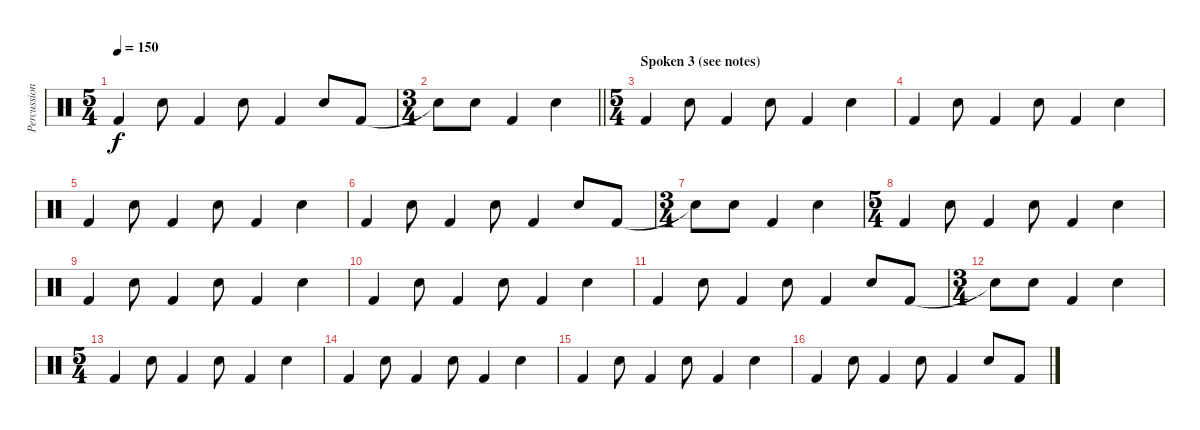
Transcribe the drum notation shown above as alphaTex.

\track ("Percussion" "Percussion") {instrument percussion}
\staff {score}
\articulation defaults
\ts (5 4)
\tempo 150
\clef neutral
\ks c "Kick (hit) 2".4{dy f} "Snare (hit) 2".8 "Kick (hit) 2".4 "Snare (hit) 2".8 "Kick (hit) 2".4 "Snare (hit) 2".8 "Kick (hit) 2".8
|
\ts (3 4)
\barLineRight lightlight "Snare (hit)"{t}.8 "Snare (hit) 2".8 "Kick (hit) 2".4 "Snare (hit) 2".4
|
\ts (5 4)
\section ("" "Spoken 3 (see notes)")
"Kick (hit) 2".4 "Snare (hit) 2".8 "Kick (hit) 2".4 "Snare (hit) 2".8 "Kick (hit) 2".4 "Snare (hit) 2".4 |
"Kick (hit) 2".4 "Snare (hit) 2".8 "Kick (hit) 2".4 "Snare (hit) 2".8 "Kick (hit) 2".4 "Snare (hit) 2".4 |
"Kick (hit) 2".4 "Snare (hit) 2".8 "Kick (hit) 2".4 "Snare (hit) 2".8 "Kick (hit) 2".4 "Snare (hit) 2".4 |
"Kick (hit) 2".4 "Snare (hit) 2".8 "Kick (hit) 2".4 "Snare (hit) 2".8 "Kick (hit) 2".4 "Snare (hit) 2".8 "Kick (hit) 2".8 |
\ts (3 4)
"Snare (hit)"{t}.8 "Snare (hit) 2".8 "Kick (hit) 2".4 "Snare (hit) 2".4 |
\ts (5 4)
"Kick (hit) 2".4 "Snare (hit) 2".8 "Kick (hit) 2".4 "Snare (hit) 2".8 "Kick (hit) 2".4 "Snare (hit) 2".4 |
"Kick (hit) 2".4 "Snare (hit) 2".8 "Kick (hit) 2".4 "Snare (hit) 2".8 "Kick (hit) 2".4 "Snare (hit) 2".4 |
"Kick (hit) 2".4 "Snare (hit) 2".8 "Kick (hit) 2".4 "Snare (hit) 2".8 "Kick (hit) 2".4 "Snare (hit) 2".4 |
"Kick (hit) 2".4 "Snare (hit) 2".8 "Kick (hit) 2".4 "Snare (hit) 2".8 "Kick (hit) 2".4 "Snare (hit) 2".8 "Kick (hit) 2".8 |
\ts (3 4)
"Snare (hit)"{t}.8 "Snare (hit) 2".8 "Kick (hit) 2".4 "Snare (hit) 2".4 |
\ts (5 4)
"Kick (hit) 2".4 "Snare (hit) 2".8 "Kick (hit) 2".4 "Snare (hit) 2".8 "Kick (hit) 2".4 "Snare (hit) 2".4 |
"Kick (hit) 2".4 "Snare (hit) 2".8 "Kick (hit) 2".4 "Snare (hit) 2".8 "Kick (hit) 2".4 "Snare (hit) 2".4 |
"Kick (hit) 2".4 "Snare (hit) 2".8 "Kick (hit) 2".4 "Snare (hit) 2".8 "Kick (hit) 2".4 "Snare (hit) 2".4 |
"Kick (hit) 2".4 "Snare (hit) 2".8 "Kick (hit) 2".4 "Snare (hit) 2".8 "Kick (hit) 2".4 "Snare (hit) 2".8 "Kick (hit) 2".8
